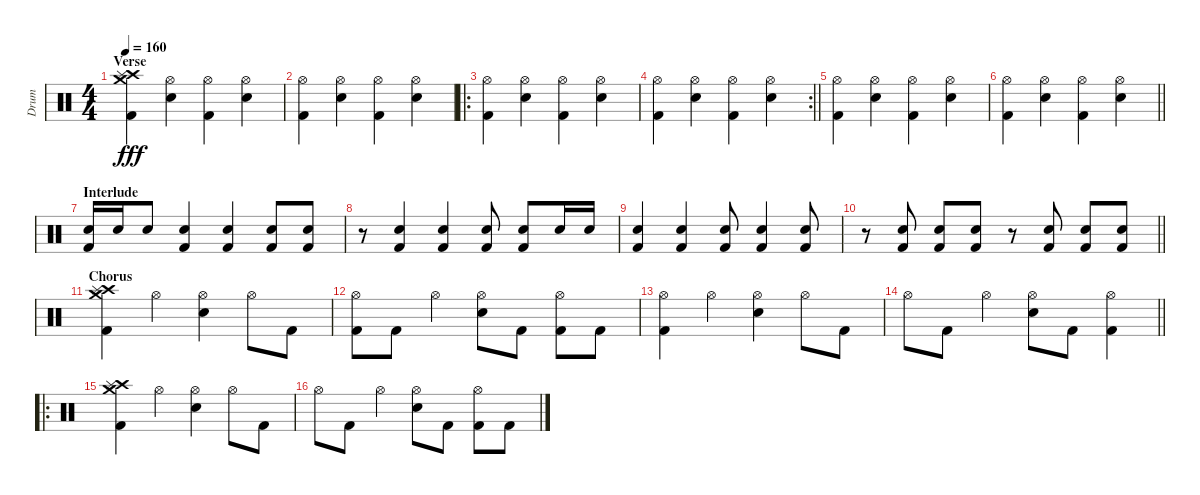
\track ("Drum" "Drum") {instrument percussion}
\staff {score}
\articulation defaults
\ts (4 4)
\section ("" "Verse")
\tempo 160
\clef neutral
\ks c
("Crash high (hit)" "Crash medium (hit)" "Splash (hit)" "Kick (hit) 2").4{dy fff} ("Hi-Hat (open)" "Electric Snare (hit)").4 ("Hi-Hat (open)" "Kick (hit) 2").4 ("Hi-Hat (open)" "Electric Snare (hit)").4 |
("Hi-Hat (open)" "Kick (hit) 2").4 ("Hi-Hat (open)" "Electric Snare (hit)").4 ("Hi-Hat (open)" "Kick (hit) 2").4 ("Hi-Hat (open)" "Electric Snare (hit)").4 |
\ro
("Hi-Hat (open)" "Kick (hit) 2").4 ("Hi-Hat (open)" "Electric Snare (hit)").4 ("Hi-Hat (open)" "Kick (hit) 2").4 ("Hi-Hat (open)" "Electric Snare (hit)").4 |
\rc 2
\barLineRight lightlight
("Hi-Hat (open)" "Kick (hit) 2").4 ("Hi-Hat (open)" "Electric Snare (hit)").4 ("Hi-Hat (open)" "Kick (hit) 2").4 ("Hi-Hat (open)" "Electric Snare (hit)").4 |
("Hi-Hat (open)" "Kick (hit) 2").4 ("Hi-Hat (open)" "Electric Snare (hit)").4 ("Hi-Hat (open)" "Kick (hit) 2").4 ("Hi-Hat (open)" "Electric Snare (hit)").4 |
\barLineRight lightlight
("Hi-Hat (open)" "Kick (hit) 2").4 ("Hi-Hat (open)" "Electric Snare (hit)").4 ("Hi-Hat (open)" "Kick (hit) 2").4 ("Hi-Hat (open)" "Electric Snare (hit)").4 |
\section ("" "Interlude")
("Electric Snare (hit)" "Kick (hit) 2").16 "Electric Snare (hit)".16 "Electric Snare (hit)".8 ("Electric Snare (hit)" "Kick (hit) 2").4 ("Electric Snare (hit)" "Kick (hit) 2").4 ("Electric Snare (hit)" "Kick (hit) 2").8 ("Electric Snare (hit)" "Kick (hit) 2").8 |
r.8 ("Electric Snare (hit)" "Kick (hit) 2").4 ("Electric Snare (hit)" "Kick (hit) 2").4 ("Electric Snare (hit)" "Kick (hit) 2").8 ("Electric Snare (hit)" "Kick (hit) 2").8 "Electric Snare (hit)".16 "Electric Snare (hit)".16 |
("Electric Snare (hit)" "Kick (hit) 2").4 ("Electric Snare (hit)" "Kick (hit) 2").4 ("Electric Snare (hit)" "Kick (hit) 2").8 ("Electric Snare (hit)" "Kick (hit) 2").4 ("Electric Snare (hit)" "Kick (hit) 2").8 |
\barLineRight lightlight
r.8 ("Electric Snare (hit)" "Kick (hit) 2").8 ("Electric Snare (hit)" "Kick (hit) 2").8 ("Electric Snare (hit)" "Kick (hit) 2").8 r.8 ("Electric Snare (hit)" "Kick (hit) 2").8 ("Electric Snare (hit)" "Kick (hit) 2").8 ("Electric Snare (hit)" "Kick (hit) 2").8 |
\section ("" "Chorus")
("Crash high (hit)" "Crash medium (hit)" "Splash (hit)" "Kick (hit) 2").4 "Hi-Hat (open)".4 ("Hi-Hat (open)" "Electric Snare (hit)").4 "Hi-Hat (open)".8 "Kick (hit) 2".8 |
("Hi-Hat (open)" "Kick (hit) 2").8 "Kick (hit) 2".8 "Hi-Hat (open)".4 ("Hi-Hat (open)" "Electric Snare (hit)").8 "Kick (hit) 2".8 ("Hi-Hat (open)" "Kick (hit) 2").8 "Kick (hit) 2".8 |
("Hi-Hat (open)" "Kick (hit) 2").4 "Hi-Hat (open)".4 ("Hi-Hat (open)" "Electric Snare (hit)").4 "Hi-Hat (open)".8 "Kick (hit) 2".8 |
\barLineRight lightlight "Hi-Hat (open)".8 "Kick (hit) 2".8 "Hi-Hat (open)".4
("Hi-Hat (open)" "Electric Snare (hit)").8 "Kick (hit) 2".8 ("Hi-Hat (open)" "Kick (hit) 2").4 |
\ro
("Crash high (hit)" "Crash medium (hit)" "Splash (hit)" "Kick (hit) 2").4 "Hi-Hat (open)".4 ("Hi-Hat (open)" "Electric Snare (hit)").4 "Hi-Hat (open)".8 "Kick (hit) 2".8 |
"Hi-Hat (open)".8 "Kick (hit) 2".8 "Hi-Hat (open)".4 ("Hi-Hat (open)" "Electric Snare (hit)").8 "Kick (hit) 2".8 ("Hi-Hat (open)" "Kick (hit) 2").8 "Kick (hit) 2".8
